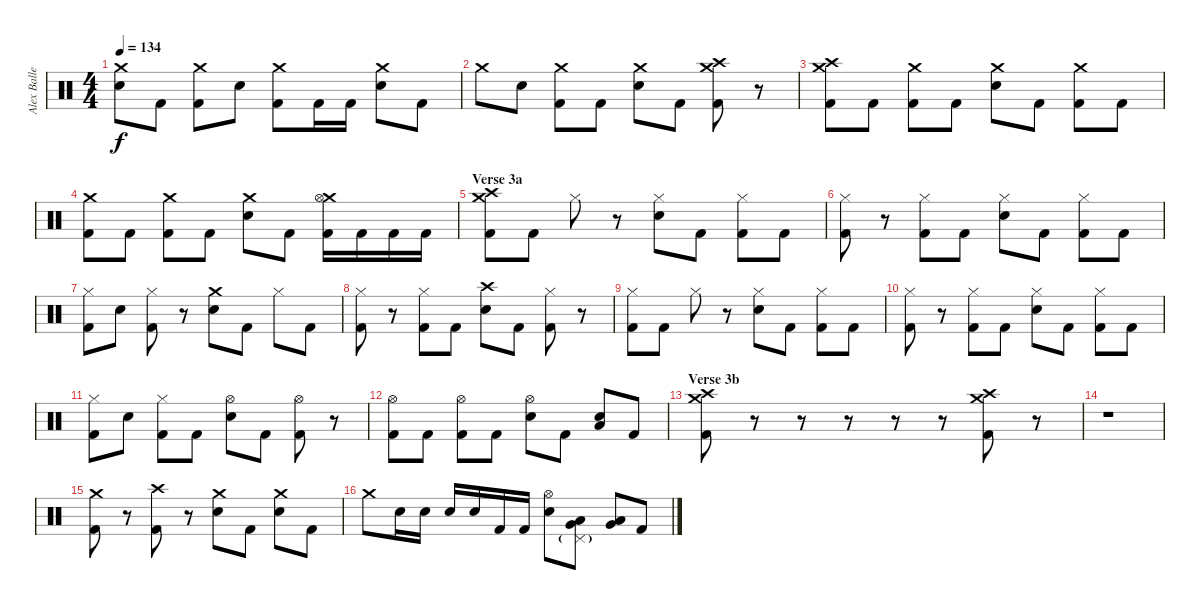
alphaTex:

\track ("Alex Ballew" "Alex Balle") {instrument percussion}
\staff {score}
\articulation defaults
\ts (4 4)
\tempo 134
\clef neutral
\ks c
("Crash medium (hit)" "Electric Snare (hit)").8{dy f} "Kick (hit) 2".8 ("Crash medium (hit)" "Kick (hit) 2").8 "Electric Snare (hit)".8 ("Crash medium (hit)" "Kick (hit) 2").8 "Kick (hit) 2".16 "Kick (hit) 2".16 ("Crash medium (hit)" "Electric Snare (hit)").8 "Kick (hit) 2".8 |
"Crash medium (hit)".8 "Electric Snare (hit)".8 ("Crash medium (hit)" "Kick (hit) 2").8 "Kick (hit) 2".8 ("Crash medium (hit)" "Electric Snare (hit)").8 "Kick (hit) 2".8 ("Crash medium (hit)" "Crash high (hit)" "Kick (hit) 2").8 r.8 |
("Crash medium (hit)" "Crash high (hit)" "Kick (hit) 2").8 "Kick (hit) 2".8 ("Crash medium (hit)" "Kick (hit) 2").8 "Kick (hit) 2".8 ("Crash medium (hit)" "Electric Snare (hit)").8 "Kick (hit) 2".8 ("Crash medium (hit)" "Kick (hit) 2").8 "Kick (hit) 2".8 |
("Crash medium (hit)" "Kick (hit) 2").8 "Kick (hit) 2".8 ("Crash medium (hit)" "Kick (hit) 2").8 "Kick (hit) 2".8 ("Crash medium (hit)" "Electric Snare (hit)").8 "Kick (hit) 2".8 ("Crash medium (hit)" "Hi-Hat (open)" "Kick (hit) 2").16 "Kick (hit) 2".16 "Kick (hit) 2".16 "Kick (hit) 2".16 |
\section ("" "Verse 3a")
("Crash medium (hit)" "Crash high (hit)" "Kick (hit) 2").8 "Kick (hit) 2".8 "Hi-Hat (closed)".8 r.8 ("Hi-Hat (closed)" "Electric Snare (hit)").8 "Kick (hit) 2".8 ("Hi-Hat (closed)" "Kick (hit) 2").8 "Kick (hit) 2".8 |
("Hi-Hat (closed)" "Kick (hit) 2").8 r.8 ("Hi-Hat (closed)" "Kick (hit) 2").8 "Kick (hit) 2".8 ("Hi-Hat (closed)" "Electric Snare (hit)").8 "Kick (hit) 2".8 ("Hi-Hat (closed)" "Kick (hit) 2").8 "Kick (hit) 2".8 |
("Hi-Hat (closed)" "Kick (hit) 2").8 "Electric Snare (hit)".8 ("Hi-Hat (closed)" "Kick (hit) 2").8 r.8 ("Crash medium (hit)" "Electric Snare (hit)").8 "Kick (hit) 2".8 "Hi-Hat (closed)".8 "Kick (hit) 2".8 |
("Hi-Hat (closed)" "Kick (hit) 2").8 r.8 ("Hi-Hat (closed)" "Kick (hit) 2").8 "Kick (hit) 2".8 ("Crash high (hit)" "Electric Snare (hit)").8 "Kick (hit) 2".8 ("Hi-Hat (closed)" "Kick (hit) 2").8 r.8 |
("Hi-Hat (closed)" "Kick (hit) 2").8 "Kick (hit) 2".8 "Hi-Hat (closed)".8 r.8 ("Hi-Hat (closed)" "Electric Snare (hit)").8 "Kick (hit) 2".8 ("Hi-Hat (closed)" "Kick (hit) 2").8 "Kick (hit) 2".8 |
("Hi-Hat (closed)" "Kick (hit) 2").8 r.8 ("Hi-Hat (closed)" "Kick (hit) 2").8 "Kick (hit) 2".8 ("Hi-Hat (closed)" "Electric Snare (hit)").8 "Kick (hit) 2".8 ("Hi-Hat (closed)" "Kick (hit) 2").8 "Kick (hit) 2".8 |
("Hi-Hat (closed)" "Kick (hit) 2").8 "Electric Snare (hit)".8 ("Hi-Hat (closed)" "Kick (hit) 2").8 "Kick (hit) 2".8 ("Hi-Hat (open)" "Electric Snare (hit)").8 "Kick (hit) 2".8 ("Hi-Hat (open)" "Kick (hit) 2").8 r.8 |
("Hi-Hat (open)" "Kick (hit) 2").8 "Kick (hit) 2".8 ("Hi-Hat (open)" "Kick (hit) 2").8 "Kick (hit) 2".8 ("Hi-Hat (open)" "Electric Snare (hit)").8 "Kick (hit) 2".8 ("Low Floor Tom (hit)" "Electric Snare (hit)").8 "Kick (hit) 2".8 |
\section ("" "Verse 3b")
("Crash medium (hit)" "Crash high (hit)" "Kick (hit) 2").8 r.8 r.8 r.8 r.8 r.8 ("Crash medium (hit)" "Crash high (hit)" "Kick (hit) 2").8 r.8 |
r.1 |
("Crash medium (hit)" "Kick (hit) 2").8 r.8 ("Crash high (hit)" "Kick (hit) 2").8 r.8 ("Crash medium (hit)" "Electric Snare (hit)").8 "Kick (hit) 2".8 ("Crash medium (hit)" "Electric Snare (hit)").8 "Kick (hit) 2".8 |
"Crash medium (hit)".8 "Electric Snare (hit)".16 "Electric Snare (hit)".16 "Electric Snare (hit)".16 "Electric Snare (hit)".16 "Kick (hit) 2".16 "Kick (hit) 2".16 ("Hi-Hat (open)" "Electric Snare (hit)").8 ("Pedal Hi-Hat (hit)"{g} "Low Tom (hit)" "Very Low Tom (hit)").8 ("Low Tom (hit)" "Very Low Tom (hit)").8 "Kick (hit) 2".8
